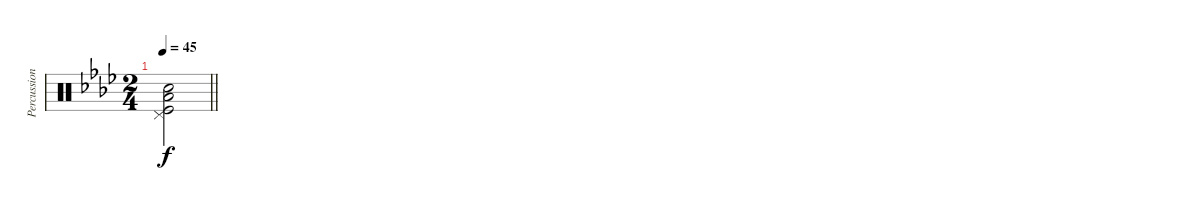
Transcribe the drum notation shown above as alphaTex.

\track ("Percussions" "Percussion") {instrument percussion}
\staff {score}
\articulation defaults
\ts (2 4)
\tempo 45
\clef neutral
\barLineRight lightlight
\ks fminor
("Electric Snare (hit)" "Kick (hit)" "Pedal Hi-Hat (hit)" "Low Floor Tom (hit)").2{dy f}
